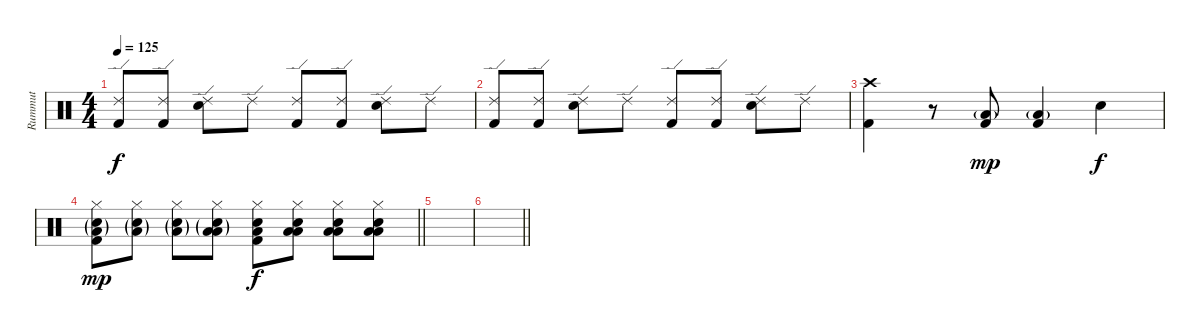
\track ("Rummut" "Rummut") {instrument percussion}
\staff {score}
\articulation defaults
\ts (4 4)
\tempo 125
\clef neutral
\ks c
("Kick (hit) 2" "Ride (edge) 2").8{dy f} ("Kick (hit) 2" "Ride (edge) 2").8 ("Snare (hit) 2" "Ride (edge) 2").8 "Ride (edge) 2".8 ("Kick (hit) 2" "Ride (edge) 2").8 ("Kick (hit) 2" "Ride (edge) 2").8 ("Snare (hit) 2" "Ride (edge) 2").8 "Ride (edge) 2".8 |
("Kick (hit) 2" "Ride (edge) 2").8 ("Kick (hit) 2" "Ride (edge) 2").8 ("Snare (hit) 2" "Ride (edge) 2").8 "Ride (edge) 2".8 ("Kick (hit) 2" "Ride (edge) 2").8 ("Kick (hit) 2" "Ride (edge) 2").8 ("Snare (hit) 2" "Ride (edge) 2").8 "Ride (edge) 2".8 |
("Kick (hit) 2" "Crash high (hit)").4 r.8 ("Low Tom (hit)"{g} "Kick (hit) 2").8{dy mp} ("Low Tom (hit)"{g} "Kick (hit) 2").4 "Snare (hit) 2".4{dy f} |
\barLineRight lightlight
("Low Tom (hit)"{g} "Snare (hit) 2"{g} "Hi-Hat (closed)" "Kick (hit) 2").8{dy mp} ("Low Tom (hit)"{g} "Snare (hit) 2"{g} "Hi-Hat (closed)").8 ("Low Tom (hit)"{g} "Snare (hit) 2"{g} "Hi-Hat (closed)").8 ("Low Tom (hit)"{g} "Snare (hit) 2"{g} "Low Tom (hit)" "Hi-Hat (closed)").8 ("Low Tom (hit)" "Snare (hit) 2" "Hi-Hat (closed)" "Kick (hit) 2").8{dy f} ("Low Tom (hit)" "Snare (hit) 2" "Low Tom (hit)" "Hi-Hat (closed)").8 ("Low Tom (hit)" "Snare (hit) 2" "Low Tom (hit)" "Hi-Hat (closed)").8 ("Low Tom (hit)" "Snare (hit) 2" "Low Tom (hit)" "Hi-Hat (closed)").8 |
|
\barLineRight lightlight
